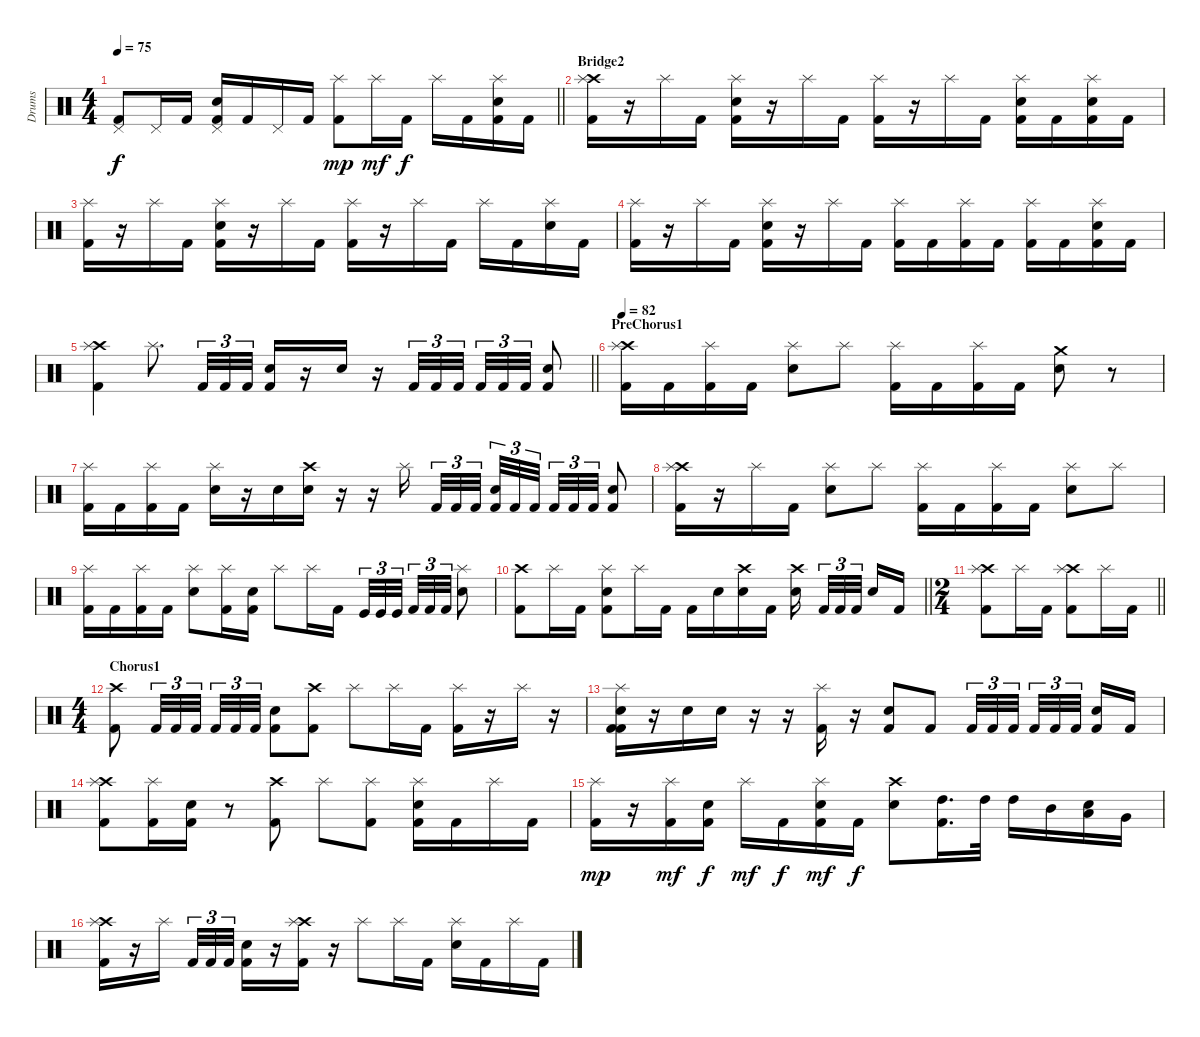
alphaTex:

\track ("Drums" "Drums") {instrument percussion}
\staff {score}
\articulation defaults
\ts (4 4)
\tempo 75
\clef neutral
\barLineRight lightlight
\ks c
("Pedal Hi-Hat (hit)" "Kick (hit) 2").8{dy f} "Pedal Hi-Hat (hit)".16 "Kick (hit) 2".16 ("Pedal Hi-Hat (hit)" "Snare (hit) 2" "Kick (hit) 2").16 "Kick (hit) 2".16 "Pedal Hi-Hat (hit)".16 "Kick (hit) 2".16 ("Splash (hit)" "Kick (hit) 2").8{dy mp} "Splash (hit)".16{dy mf} "Kick (hit) 2".16{dy f} "Splash (hit)".16 "Kick (hit) 2".16 ("Splash (hit)" "Snare (hit) 2" "Kick (hit) 2").16 "Kick (hit) 2".16 |
\section ("" "Bridge2")
("Crash high (hit)" "Splash (hit)" "Kick (hit) 2").16 r.16 "Splash (hit)".16 "Kick (hit) 2".16 ("Splash (hit)" "Snare (hit) 2" "Kick (hit) 2").16 r.16 "Splash (hit)".16 "Kick (hit) 2".16 ("Splash (hit)" "Kick (hit) 2").16 r.16 "Splash (hit)".16 "Kick (hit) 2".16 ("Splash (hit)" "Snare (hit) 2" "Kick (hit) 2").16 "Kick (hit) 2".16 ("Splash (hit)" "Snare (hit) 2" "Kick (hit) 2").16 "Kick (hit) 2".16 |
("Splash (hit)" "Kick (hit) 2").16 r.16 "Splash (hit)".16 "Kick (hit) 2".16 ("Splash (hit)" "Snare (hit) 2" "Kick (hit) 2").16 r.16 "Splash (hit)".16 "Kick (hit) 2".16 ("Splash (hit)" "Kick (hit) 2").16 r.16 "Splash (hit)".16 "Kick (hit) 2".16 "Splash (hit)".16 "Kick (hit) 2".16 ("Splash (hit)" "Snare (hit) 2").16 "Kick (hit) 2".16 |
("Splash (hit)" "Kick (hit) 2").16 r.16 "Splash (hit)".16 "Kick (hit) 2".16 ("Splash (hit)" "Snare (hit) 2" "Kick (hit) 2").16 r.16 "Splash (hit)".16 "Kick (hit) 2".16 ("Splash (hit)" "Kick (hit) 2").16 "Kick (hit) 2".16 ("Splash (hit)" "Kick (hit) 2").16 "Kick (hit) 2".16 ("Splash (hit)" "Kick (hit) 2").16 "Kick (hit) 2".16 ("Splash (hit)" "Snare (hit) 2" "Kick (hit) 2").16 "Kick (hit) 2".16 |
\barLineRight lightlight
("Crash high (hit)" "Splash (hit)" "Kick (hit) 2").4 "Splash (hit)".8{d} "Kick (hit) 2".32{tu (3 2)} "Kick (hit) 2".32{tu (3 2)} "Kick (hit) 2".32{tu (3 2)} ("Snare (hit) 2" "Kick (hit) 2").16 r.16 "Snare (hit) 2".16 r.16 "Kick (hit) 2".32{tu (3 2)} "Kick (hit) 2".32{tu (3 2)} "Kick (hit) 2".32{tu (3 2) beam splitsecondary} "Kick (hit) 2".32{tu (3 2)} "Kick (hit) 2".32{tu (3 2)} "Kick (hit) 2".32{tu (3 2)} ("Snare (hit) 2" "Kick (hit) 2").8 |
\section ("" "PreChorus1")
\tempo 82
("Crash high (hit)" "Splash (hit)" "Kick (hit) 2").16 "Kick (hit) 2".16 ("Splash (hit)" "Kick (hit) 2").16 "Kick (hit) 2".16 ("Splash (hit)" "Snare (hit) 2").8 "Splash (hit)".8 ("Splash (hit)" "Kick (hit) 2").16 "Kick (hit) 2".16 ("Splash (hit)" "Kick (hit) 2").16 "Kick (hit) 2".16 ("Crash medium (hit)" "Snare (hit) 2").8 r.8 |
("Splash (hit)" "Kick (hit) 2").16 "Kick (hit) 2".16 ("Splash (hit)" "Kick (hit) 2").16 "Kick (hit) 2".16 ("Splash (hit)" "Snare (hit) 2").16 r.16 "Snare (hit) 2".16 ("Crash high (hit)" "Snare (hit) 2").16 r.16 r.16 "Splash (hit)".16{beam splitsecondary} "Kick (hit) 2".32{tu (3 2)} "Kick (hit) 2".32{tu (3 2)} "Kick (hit) 2".32{tu (3 2)} ("Snare (hit) 2" "Kick (hit) 2").32{tu (3 2)} "Kick (hit) 2".32{tu (3 2)} "Kick (hit) 2".32{tu (3 2) beam splitsecondary} "Kick (hit) 2".32{tu (3 2)} "Kick (hit) 2".32{tu (3 2)} "Kick (hit) 2".32{tu (3 2)} ("Snare (hit) 2" "Kick (hit) 2").8 |
("Crash high (hit)" "Splash (hit)" "Kick (hit) 2").16 r.16 "Splash (hit)".16 "Kick (hit) 2".16 ("Splash (hit)" "Snare (hit) 2").8 "Splash (hit)".8 ("Splash (hit)" "Kick (hit) 2").16 "Kick (hit) 2".16 ("Splash (hit)" "Kick (hit) 2").16 "Kick (hit) 2".16 ("Splash (hit)" "Snare (hit) 2").8 "Splash (hit)".8 |
("Splash (hit)" "Kick (hit) 2").16 "Kick (hit) 2".16 ("Splash (hit)" "Kick (hit) 2").16 "Kick (hit) 2".16 ("Splash (hit)" "Snare (hit) 2").8 ("Splash (hit)" "Kick (hit) 2").16 ("Snare (hit) 2" "Kick (hit) 2").16 "Splash (hit)".8 "Splash (hit)".16 "Kick (hit) 2".16 "Kick (hit)".32{tu (3 2)} "Kick (hit)".32{tu (3 2)} "Kick (hit)".32{tu (3 2) beam splitsecondary} "Kick (hit) 2".32{tu (3 2)} "Kick (hit) 2".32{tu (3 2)} "Kick (hit) 2".32{tu (3 2)} ("Splash (hit)" "Snare (hit) 2").8 |
\barLineRight lightlight
("Crash high (hit)" "Kick (hit) 2").8 "Splash (hit)".16 "Kick (hit) 2".16 ("Splash (hit)" "Snare (hit) 2" "Kick (hit) 2").8 "Splash (hit)".16 "Kick (hit) 2".16 "Kick (hit) 2".16 "Snare (hit) 2".16 ("Crash high (hit)" "Snare (hit) 2").16 "Kick (hit) 2".16 ("Crash high (hit)" "Snare (hit) 2").16{beam splitsecondary} "Kick (hit) 2".32{tu (3 2)} "Kick (hit) 2".32{tu (3 2)} "Kick (hit) 2".32{tu (3 2) beam splitsecondary} "Snare (hit) 2".16 "Kick (hit) 2".16 |
\ts (2 4)
\barLineRight lightlight
("Crash high (hit)" "Splash (hit)" "Kick (hit) 2").8 "Splash (hit)".16 "Kick (hit) 2".16 ("Crash high (hit)" "Splash (hit)" "Kick (hit) 2").8 "Splash (hit)".16 "Kick (hit) 2".16 |
\ts (4 4)
\section ("" "Chorus1")
("Crash high (hit)" "Kick (hit) 2").8 "Kick (hit) 2".32{tu (3 2)} "Kick (hit) 2".32{tu (3 2)} "Kick (hit) 2".32{tu (3 2) beam splitsecondary} "Kick (hit) 2".32{tu (3 2)} "Kick (hit) 2".32{tu (3 2)} "Kick (hit) 2".32{tu (3 2)} ("Snare (hit) 2" "Kick (hit) 2").8 ("Crash high (hit)" "Kick (hit) 2").8 "Splash (hit)".8 "Splash (hit)".16 "Kick (hit) 2".16 ("Splash (hit)" "Kick (hit) 2").16 r.16 "Splash (hit)".16 r.16 |
("Splash (hit)" "Snare (hit) 2" "Kick (hit) 2" "Kick (hit) 2").16 r.16 "Snare (hit) 2".16 "Snare (hit) 2".16 r.16 r.16 ("Splash (hit)" "Kick (hit) 2").16 r.16 ("Snare (hit) 2" "Kick (hit) 2").8 "Kick (hit) 2".8 "Kick (hit) 2".32{tu (3 2)} "Kick (hit) 2".32{tu (3 2)} "Kick (hit) 2".32{tu (3 2) beam splitsecondary} "Kick (hit) 2".32{tu (3 2)} "Kick (hit) 2".32{tu (3 2)} "Kick (hit) 2".32{tu (3 2) beam splitsecondary} ("Snare (hit) 2" "Kick (hit) 2").16 "Kick (hit) 2".16 |
("Crash high (hit)" "Splash (hit)" "Kick (hit) 2").8 ("Splash (hit)" "Kick (hit) 2").16 ("Snare (hit) 2" "Kick (hit) 2").16 r.8 ("Crash high (hit)" "Kick (hit) 2").8 "Splash (hit)".8 ("Splash (hit)" "Kick (hit) 2").8 ("Splash (hit)" "Snare (hit) 2" "Kick (hit) 2").16 "Kick (hit) 2".16 "Splash (hit)".16 "Kick (hit) 2".16 |
("Splash (hit)" "Kick (hit) 2").16{dy mp} r.16 ("Splash (hit)" "Kick (hit) 2").16{dy mf} ("Snare (hit) 2" "Kick (hit) 2").16{dy f} "Splash (hit)".16{dy mf} "Kick (hit) 2".16{dy f} ("Splash (hit)" "Snare (hit) 2" "Kick (hit) 2").16{dy mf} "Kick (hit) 2".16{dy f} ("Crash high (hit)" "Snare (hit) 2").8 ("High Tom (hit)" "Kick (hit) 2").16{d} "High Tom (hit)".32 "High Tom (hit)".16 "Mid Tom (hit)".16 ("Snare (hit) 2" "Low Tom (hit)").16 "Very Low Tom (hit)".16 |
("Crash high (hit)" "Splash (hit)" "Kick (hit) 2").16 r.16 "Splash (hit)".16{beam splitsecondary} "Kick (hit) 2".32{tu (3 2)} "Kick (hit) 2".32{tu (3 2)} "Kick (hit) 2".32{tu (3 2)} ("Snare (hit) 2" "Kick (hit) 2").16 r.16 ("Crash high (hit)" "Splash (hit)" "Kick (hit) 2").16 r.16 "Splash (hit)".8 "Splash (hit)".16 "Kick (hit) 2".16 ("Splash (hit)" "Snare (hit) 2").16 "Kick (hit) 2".16 "Splash (hit)".16 "Kick (hit) 2".16
